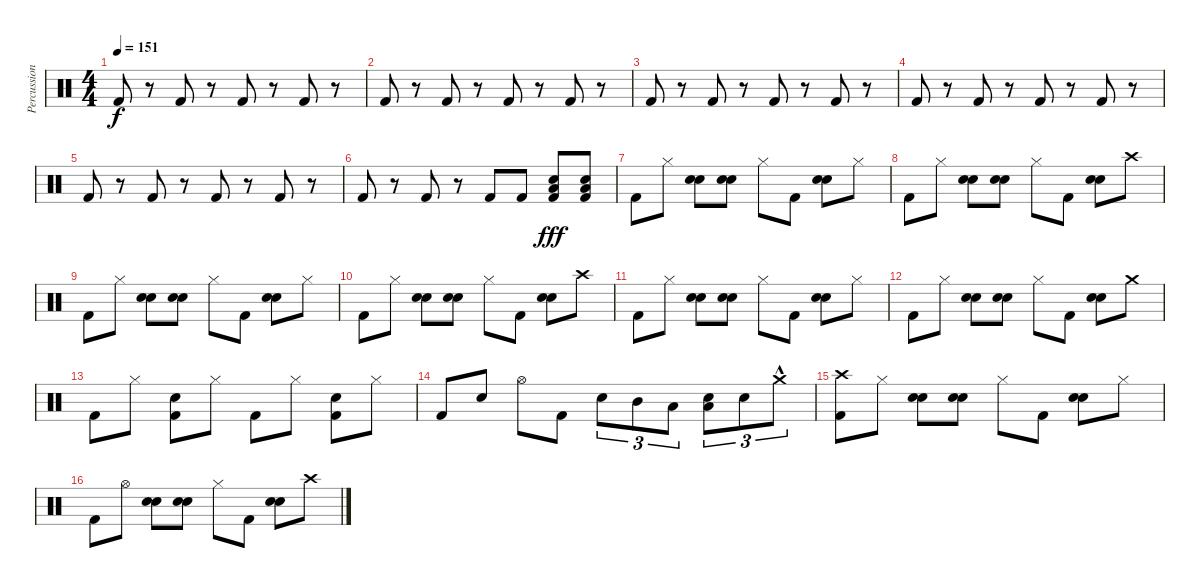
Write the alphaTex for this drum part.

\track ("Percussion" "Percussion") {instrument percussion bank 1}
\staff {score}
\articulation defaults
\ts (4 4)
\tempo 151
\clef neutral
\ks c "Kick (hit) 2".8{dy f}
r.8 "Kick (hit) 2".8 r.8 "Kick (hit) 2".8 r.8 "Kick (hit) 2".8 r.8 |
"Kick (hit) 2".8 r.8 "Kick (hit) 2".8 r.8 "Kick (hit) 2".8 r.8 "Kick (hit) 2".8 r.8 |
"Kick (hit) 2".8 r.8 "Kick (hit) 2".8 r.8 "Kick (hit) 2".8 r.8 "Kick (hit) 2".8 r.8 |
"Kick (hit) 2".8 r.8 "Kick (hit) 2".8 r.8 "Kick (hit) 2".8 r.8 "Kick (hit) 2".8 r.8 |
"Kick (hit) 2".8 r.8 "Kick (hit) 2".8 r.8 "Kick (hit) 2".8 r.8 "Kick (hit) 2".8 r.8 |
"Kick (hit) 2".8 r.8 "Kick (hit) 2".8 r.8 "Kick (hit) 2".8 "Kick (hit) 2".8 ("Low Floor Tom (hit)" "Snare (hit) 2" "Kick (hit) 2").8{dy fff} ("Low Floor Tom (hit)" "Snare (hit) 2" "Kick (hit) 2").8 |
"Kick (hit) 2".8 "Hi-Hat (closed)".8 ("Hand Clap (hit)" "Snare (hit) 2").8 ("Hand Clap (hit)" "Snare (hit) 2").8 "Hi-Hat (closed)".8 "Kick (hit) 2".8 ("Hand Clap (hit)" "Snare (hit) 2").8 "Hi-Hat (closed)".8 |
"Kick (hit) 2".8 "Hi-Hat (closed)".8 ("Hand Clap (hit)" "Snare (hit) 2").8 ("Hand Clap (hit)" "Snare (hit) 2").8 "Hi-Hat (closed)".8 "Kick (hit) 2".8 ("Hand Clap (hit)" "Snare (hit) 2").8 "Crash high (hit)".8 |
"Kick (hit) 2".8 "Hi-Hat (closed)".8 ("Hand Clap (hit)" "Snare (hit) 2").8 ("Hand Clap (hit)" "Snare (hit) 2").8 "Hi-Hat (closed)".8 "Kick (hit) 2".8 ("Hand Clap (hit)" "Snare (hit) 2").8 "Hi-Hat (closed)".8 |
"Kick (hit) 2".8 "Hi-Hat (closed)".8 ("Hand Clap (hit)" "Snare (hit) 2").8 ("Hand Clap (hit)" "Snare (hit) 2").8 "Hi-Hat (closed)".8 "Kick (hit) 2".8 ("Hand Clap (hit)" "Snare (hit) 2").8 "Crash high (hit)".8 |
"Kick (hit) 2".8 "Hi-Hat (closed)".8 ("Hand Clap (hit)" "Snare (hit) 2").8 ("Hand Clap (hit)" "Snare (hit) 2").8 "Hi-Hat (closed)".8 "Kick (hit) 2".8 ("Hand Clap (hit)" "Snare (hit) 2").8 "Hi-Hat (closed)".8 |
"Kick (hit) 2".8 "Hi-Hat (closed)".8 ("Hand Clap (hit)" "Snare (hit) 2").8 ("Hand Clap (hit)" "Snare (hit) 2").8 "Hi-Hat (closed)".8 "Kick (hit) 2".8 ("Hand Clap (hit)" "Snare (hit) 2").8 "Crash medium (hit)".8 |
"Kick (hit) 2".8 "Hi-Hat (closed)".8 ("Snare (hit) 2" "Kick (hit) 2").8 "Hi-Hat (closed)".8 "Kick (hit) 2".8 "Hi-Hat (closed)".8 ("Snare (hit) 2" "Kick (hit) 2").8 "Hi-Hat (closed)".8 |
"Kick (hit) 2".8 "Snare (hit) 2".8 "Hi-Hat (open)".8 "Kick (hit) 2".8 "Snare (hit) 2".8{tu (3 2)} "Mid Tom (hit)".8{tu (3 2)} "Low Tom (hit)".8{tu (3 2)} ("Snare (hit) 2" "Low Floor Tom (hit)").8{tu (3 2)} "Snare (hit) 2".8{tu (3 2)} "Crash medium (hit)"{hac}.8{tu (3 2)} |
("Crash high (hit)" "Kick (hit) 2").8 "Hi-Hat (closed)".8 ("Hand Clap (hit)" "Snare (hit) 2").8 ("Hand Clap (hit)" "Snare (hit) 2").8 "Hi-Hat (closed)".8 "Kick (hit) 2".8 ("Hand Clap (hit)" "Snare (hit) 2").8 "Hi-Hat (closed)".8 |
"Kick (hit) 2".8 "Hi-Hat (open)".8 ("Hand Clap (hit)" "Snare (hit) 2").8 ("Hand Clap (hit)" "Snare (hit) 2").8 "Hi-Hat (closed)".8 "Kick (hit) 2".8 ("Hand Clap (hit)" "Snare (hit) 2").8 "Crash high (hit)".8
